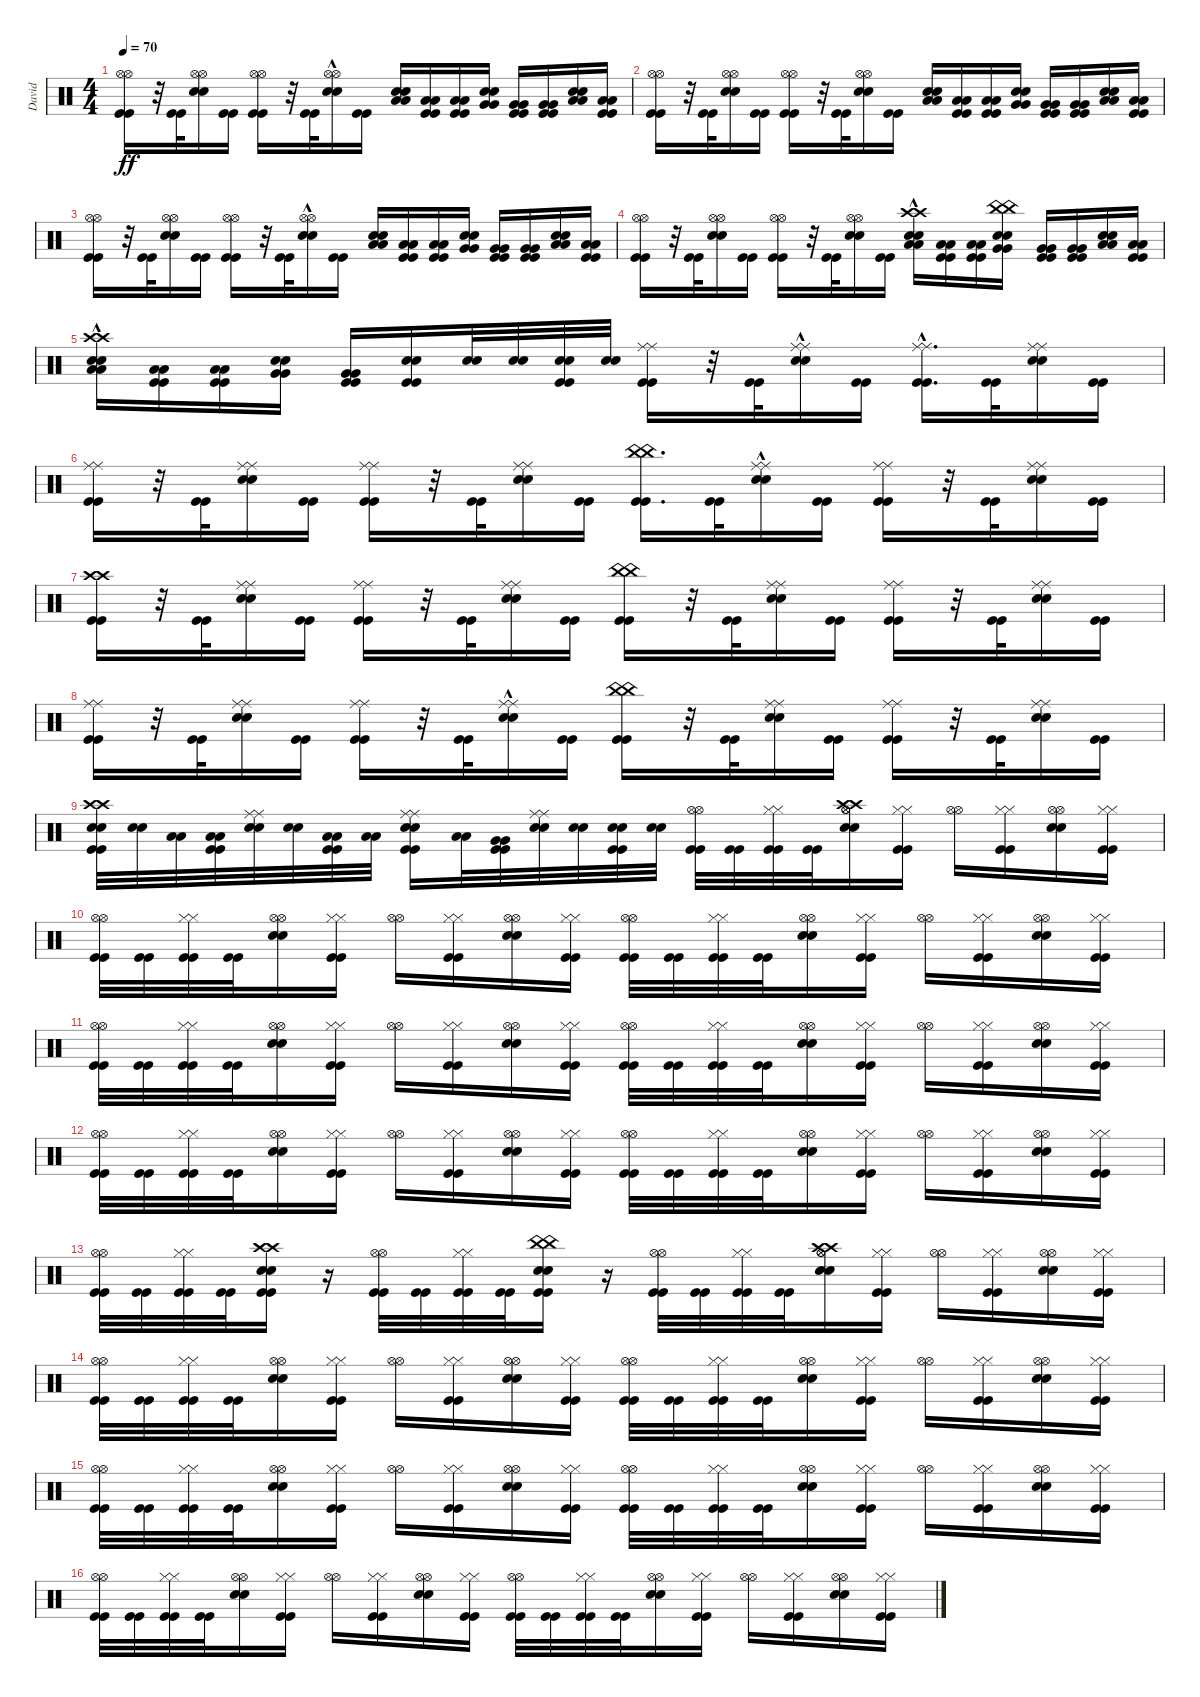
\track ("David" "David") {instrument percussion}
\staff {score}
\articulation defaults
\ts (4 4)
\tempo 70
\clef neutral
\ks c
("Hi-Hat (open)" "Hi-Hat (open)" "Kick (hit)" "Kick (hit)").16{dy ff} r.32 ("Kick (hit)" "Kick (hit)").32 ("Hi-Hat (open)" "Hi-Hat (open)" "Snare (hit) 2" "Snare (hit) 2").16 ("Kick (hit)" "Kick (hit)").16 ("Hi-Hat (open)" "Hi-Hat (open)" "Kick (hit)" "Kick (hit)").16 r.32 ("Kick (hit)" "Kick (hit)").32 ("Hi-Hat (open)"{hac} "Hi-Hat (open)"{hac} "Snare (hit) 2" "Snare (hit) 2").16 ("Kick (hit)" "Kick (hit)").16 ("Snare (hit) 2" "Snare (hit) 2" "Low Tom (hit)" "Low Tom (hit)").16 ("Kick (hit)" "Kick (hit)" "Low Tom (hit)" "Low Tom (hit)").16 ("Kick (hit)" "Kick (hit)" "Low Tom (hit)" "Low Tom (hit)").16 ("Snare (hit) 2" "Snare (hit) 2" "Very Low Tom (hit)" "Very Low Tom (hit)").16 ("Kick (hit)" "Kick (hit)" "Very Low Tom (hit)" "Very Low Tom (hit)").16 ("Kick (hit)" "Kick (hit)" "Very Low Tom (hit)" "Very Low Tom (hit)").16 ("Snare (hit) 2" "Snare (hit) 2" "Low Floor Tom (hit)" "Low Floor Tom (hit)").16 ("Kick (hit)" "Kick (hit)" "Low Floor Tom (hit)" "Low Floor Tom (hit)").16 |
("Hi-Hat (open)" "Hi-Hat (open)" "Kick (hit)" "Kick (hit)").16 r.32 ("Kick (hit)" "Kick (hit)").32 ("Hi-Hat (open)" "Hi-Hat (open)" "Snare (hit) 2" "Snare (hit) 2").16 ("Kick (hit)" "Kick (hit)").16 ("Hi-Hat (open)" "Hi-Hat (open)" "Kick (hit)" "Kick (hit)").16 r.32 ("Kick (hit)" "Kick (hit)").32 ("Hi-Hat (open)" "Hi-Hat (open)" "Snare (hit) 2" "Snare (hit) 2").16 ("Kick (hit)" "Kick (hit)").16 ("Snare (hit) 2" "Snare (hit) 2" "Low Tom (hit)" "Low Tom (hit)").16 ("Kick (hit)" "Kick (hit)" "Low Tom (hit)" "Low Tom (hit)").16 ("Kick (hit)" "Kick (hit)" "Low Tom (hit)" "Low Tom (hit)").16 ("Snare (hit) 2" "Snare (hit) 2" "Very Low Tom (hit)" "Very Low Tom (hit)").16 ("Kick (hit)" "Kick (hit)" "Very Low Tom (hit)" "Very Low Tom (hit)").16 ("Kick (hit)" "Kick (hit)" "Very Low Tom (hit)" "Very Low Tom (hit)").16 ("Snare (hit) 2" "Snare (hit) 2" "Low Floor Tom (hit)" "Low Floor Tom (hit)").16 ("Kick (hit)" "Kick (hit)" "Low Floor Tom (hit)" "Low Floor Tom (hit)").16 |
("Kick (hit)" "Kick (hit)" "Hi-Hat (open)" "Hi-Hat (open)").16 r.32 ("Kick (hit)" "Kick (hit)").32 ("Snare (hit) 2" "Snare (hit) 2" "Hi-Hat (open)" "Hi-Hat (open)").16 ("Kick (hit)" "Kick (hit)").16 ("Kick (hit)" "Kick (hit)" "Hi-Hat (open)" "Hi-Hat (open)").16 r.32 ("Kick (hit)" "Kick (hit)").32 ("Snare (hit) 2" "Snare (hit) 2" "Hi-Hat (open)"{hac} "Hi-Hat (open)"{hac}).16 ("Kick (hit)" "Kick (hit)").16 ("Snare (hit) 2" "Snare (hit) 2" "Low Tom (hit)" "Low Tom (hit)").16 ("Kick (hit)" "Kick (hit)" "Low Tom (hit)" "Low Tom (hit)").16 ("Kick (hit)" "Kick (hit)" "Low Tom (hit)" "Low Tom (hit)").16 ("Snare (hit) 2" "Snare (hit) 2" "Very Low Tom (hit)" "Very Low Tom (hit)").16 ("Kick (hit)" "Kick (hit)" "Very Low Tom (hit)" "Very Low Tom (hit)").16 ("Kick (hit)" "Kick (hit)" "Very Low Tom (hit)" "Very Low Tom (hit)").16 ("Snare (hit) 2" "Snare (hit) 2" "Low Floor Tom (hit)" "Low Floor Tom (hit)").16 ("Kick (hit)" "Kick (hit)" "Low Floor Tom (hit)" "Low Floor Tom (hit)").16 |
("Kick (hit)" "Kick (hit)" "Hi-Hat (open)" "Hi-Hat (open)").16 r.32 ("Kick (hit)" "Kick (hit)").32 ("Snare (hit) 2" "Snare (hit) 2" "Hi-Hat (open)" "Hi-Hat (open)").16 ("Kick (hit)" "Kick (hit)").16 ("Kick (hit)" "Kick (hit)" "Hi-Hat (open)" "Hi-Hat (open)").16 r.32 ("Kick (hit)" "Kick (hit)").32 ("Snare (hit) 2" "Snare (hit) 2" "Hi-Hat (open)" "Hi-Hat (open)").16 ("Kick (hit)" "Kick (hit)").16 ("Snare (hit) 2" "Snare (hit) 2" "Low Tom (hit)" "Low Tom (hit)" "Crash high (hit)"{hac} "Crash high (hit)"{hac}).16 ("Kick (hit)" "Kick (hit)" "Low Tom (hit)" "Low Tom (hit)").16 ("Kick (hit)" "Kick (hit)" "Low Tom (hit)" "Low Tom (hit)").16 ("Snare (hit) 2" "Snare (hit) 2" "Very Low Tom (hit)" "Very Low Tom (hit)" "China (hit)" "China (hit)").16 ("Kick (hit)" "Kick (hit)" "Very Low Tom (hit)" "Very Low Tom (hit)").16 ("Kick (hit)" "Kick (hit)" "Very Low Tom (hit)" "Very Low Tom (hit)").16 ("Snare (hit) 2" "Snare (hit) 2" "Low Floor Tom (hit)" "Low Floor Tom (hit)").16 ("Kick (hit)" "Kick (hit)" "Low Floor Tom (hit)" "Low Floor Tom (hit)").16 |
("Crash high (hit)"{hac} "Crash high (hit)"{hac} "Snare (hit) 2" "Snare (hit) 2" "Low Tom (hit)" "Low Tom (hit)").16 ("Kick (hit)" "Kick (hit)" "Low Tom (hit)" "Low Tom (hit)").16 ("Kick (hit)" "Kick (hit)" "Low Tom (hit)" "Low Tom (hit)").16 ("Snare (hit) 2" "Snare (hit) 2" "Very Low Tom (hit)" "Very Low Tom (hit)").16 ("Kick (hit)" "Kick (hit)" "Very Low Tom (hit)" "Very Low Tom (hit)").16 ("Snare (hit) 2" "Snare (hit) 2" "Kick (hit)" "Kick (hit)").16 ("Snare (hit) 2" "Snare (hit) 2").32 ("Snare (hit) 2" "Snare (hit) 2").32 ("Snare (hit) 2" "Snare (hit) 2" "Kick (hit)" "Kick (hit)").32 ("Snare (hit) 2" "Snare (hit) 2").32 ("Kick (hit)" "Kick (hit)" "Ride (middle)" "Ride (middle)").16 r.32 ("Kick (hit)" "Kick (hit)").32 ("Ride (middle)" "Ride (middle)" "Snare (hit) 2"{hac} "Snare (hit) 2"{hac}).16 ("Kick (hit)" "Kick (hit)").16 ("Kick (hit)" "Kick (hit)" "Ride (middle)"{hac} "Ride (middle)"{hac}).16{d} ("Kick (hit)" "Kick (hit)").32 ("Ride (middle)" "Ride (middle)" "Snare (hit) 2" "Snare (hit) 2").16 ("Kick (hit)" "Kick (hit)").16 |
("Ride (middle)" "Ride (middle)" "Kick (hit)" "Kick (hit)").16 r.32 ("Kick (hit)" "Kick (hit)").32 ("Ride (middle)" "Ride (middle)" "Snare (hit) 2" "Snare (hit) 2").16 ("Kick (hit)" "Kick (hit)").16 ("Ride (middle)" "Ride (middle)" "Kick (hit)" "Kick (hit)").16 r.32 ("Kick (hit)" "Kick (hit)").32 ("Ride (middle)" "Ride (middle)" "Snare (hit) 2" "Snare (hit) 2").16 ("Kick (hit)" "Kick (hit)").16 ("China (hit)" "China (hit)" "Kick (hit)" "Kick (hit)").16{d} ("Kick (hit)" "Kick (hit)").32 ("Ride (middle)" "Ride (middle)" "Snare (hit) 2"{hac} "Snare (hit) 2"{hac}).16 ("Kick (hit)" "Kick (hit)").16 ("Ride (middle)" "Ride (middle)" "Kick (hit)" "Kick (hit)").16 r.32 ("Kick (hit)" "Kick (hit)").32 ("Ride (middle)" "Ride (middle)" "Snare (hit) 2" "Snare (hit) 2").16 ("Kick (hit)" "Kick (hit)").16 |
("Crash high (hit)" "Crash high (hit)" "Kick (hit)" "Kick (hit)").16 r.32 ("Kick (hit)" "Kick (hit)").32 ("Ride (middle)" "Ride (middle)" "Snare (hit) 2" "Snare (hit) 2").16 ("Kick (hit)" "Kick (hit)").16 ("Ride (middle)" "Ride (middle)" "Kick (hit)" "Kick (hit)").16 r.32 ("Kick (hit)" "Kick (hit)").32 ("Ride (middle)" "Ride (middle)" "Snare (hit) 2" "Snare (hit) 2").16 ("Kick (hit)" "Kick (hit)").16 ("China (hit)" "China (hit)" "Kick (hit)" "Kick (hit)").16 r.32 ("Kick (hit)" "Kick (hit)").32 ("Ride (middle)" "Ride (middle)" "Snare (hit) 2" "Snare (hit) 2").16 ("Kick (hit)" "Kick (hit)").16 ("Ride (middle)" "Ride (middle)" "Kick (hit)" "Kick (hit)").16 r.32 ("Kick (hit)" "Kick (hit)").32 ("Snare (hit) 2" "Snare (hit) 2" "Ride (middle)" "Ride (middle)").16 ("Kick (hit)" "Kick (hit)").16 |
("Kick (hit)" "Kick (hit)" "Ride (middle)" "Ride (middle)").16 r.32 ("Kick (hit)" "Kick (hit)").32 ("Snare (hit) 2" "Snare (hit) 2" "Ride (middle)" "Ride (middle)").16 ("Kick (hit)" "Kick (hit)").16 ("Ride (middle)" "Ride (middle)" "Kick (hit)" "Kick (hit)").16 r.32 ("Kick (hit)" "Kick (hit)").32 ("Ride (middle)" "Ride (middle)" "Snare (hit) 2"{hac} "Snare (hit) 2"{hac}).16 ("Kick (hit)" "Kick (hit)").16 ("China (hit)" "China (hit)" "Kick (hit)" "Kick (hit)").16 r.32 ("Kick (hit)" "Kick (hit)").32 ("Ride (middle)" "Ride (middle)" "Snare (hit) 2" "Snare (hit) 2").16 ("Kick (hit)" "Kick (hit)").16 ("Kick (hit)" "Kick (hit)" "Ride (middle)" "Ride (middle)").16 r.32 ("Kick (hit)" "Kick (hit)").32 ("Snare (hit) 2" "Snare (hit) 2" "Ride (middle)" "Ride (middle)").16 ("Kick (hit)" "Kick (hit)").16 |
("Snare (hit) 2" "Snare (hit) 2" "Kick (hit)" "Kick (hit)" "Crash high (hit)" "Crash high (hit)").32 ("Snare (hit) 2" "Snare (hit) 2").32 ("Low Floor Tom (hit)" "Low Floor Tom (hit)").32 ("Kick (hit)" "Kick (hit)" "Low Floor Tom (hit)" "Low Floor Tom (hit)").32 ("Ride (middle)" "Ride (middle)" "Snare (hit) 2" "Snare (hit) 2").32 ("Snare (hit) 2" "Snare (hit) 2").32 ("Kick (hit)" "Kick (hit)" "Low Floor Tom (hit)" "Low Floor Tom (hit)").32 ("Low Floor Tom (hit)" "Low Floor Tom (hit)").32 ("Kick (hit)" "Kick (hit)" "Ride (middle)" "Ride (middle)" "Snare (hit) 2" "Snare (hit) 2").16 ("Low Floor Tom (hit)" "Low Floor Tom (hit)").32 ("Kick (hit)" "Kick (hit)" "Very Low Tom (hit)" "Very Low Tom (hit)").32 ("Ride (middle)" "Ride (middle)" "Snare (hit) 2" "Snare (hit) 2").32 ("Snare (hit) 2" "Snare (hit) 2").32 ("Kick (hit)" "Kick (hit)" "Snare (hit) 2" "Snare (hit) 2").32 ("Snare (hit) 2" "Snare (hit) 2").32 ("Kick (hit)" "Kick (hit)" "Hi-Hat (open)" "Hi-Hat (open)").32 ("Kick (hit)" "Kick (hit)").32 ("Kick (hit)" "Kick (hit)" "Hi-Hat (closed)" "Hi-Hat (closed)").32 ("Kick (hit)" "Kick (hit)").32 ("Crash high (hit)" "Crash high (hit)" "Snare (hit) 2" "Snare (hit) 2" "Hi-Hat (open)" "Hi-Hat (open)").16 ("Hi-Hat (closed)" "Hi-Hat (closed)" "Kick (hit)" "Kick (hit)").16 ("Hi-Hat (open)" "Hi-Hat (open)").16 ("Hi-Hat (closed)" "Hi-Hat (closed)" "Kick (hit)" "Kick (hit)").16 ("Hi-Hat (open)" "Hi-Hat (open)" "Snare (hit) 2" "Snare (hit) 2").16 ("Kick (hit)" "Kick (hit)" "Hi-Hat (closed)" "Hi-Hat (closed)").16 |
("Hi-Hat (open)" "Hi-Hat (open)" "Kick (hit)" "Kick (hit)").32 ("Kick (hit)" "Kick (hit)").32 ("Kick (hit)" "Kick (hit)" "Hi-Hat (closed)" "Hi-Hat (closed)").32 ("Kick (hit)" "Kick (hit)").32 ("Snare (hit) 2" "Snare (hit) 2" "Hi-Hat (open)" "Hi-Hat (open)").16 ("Hi-Hat (closed)" "Hi-Hat (closed)" "Kick (hit)" "Kick (hit)").16 ("Hi-Hat (open)" "Hi-Hat (open)").16 ("Hi-Hat (closed)" "Hi-Hat (closed)" "Kick (hit)" "Kick (hit)").16 ("Snare (hit) 2" "Snare (hit) 2" "Hi-Hat (open)" "Hi-Hat (open)").16 ("Kick (hit)" "Kick (hit)" "Hi-Hat (closed)" "Hi-Hat (closed)").16 ("Kick (hit)" "Kick (hit)" "Hi-Hat (open)" "Hi-Hat (open)").32 ("Kick (hit)" "Kick (hit)").32 ("Kick (hit)" "Kick (hit)" "Hi-Hat (closed)" "Hi-Hat (closed)").32 ("Kick (hit)" "Kick (hit)").32 ("Hi-Hat (open)" "Hi-Hat (open)" "Snare (hit) 2" "Snare (hit) 2").16 ("Kick (hit)" "Kick (hit)" "Hi-Hat (closed)" "Hi-Hat (closed)").16 ("Hi-Hat (open)" "Hi-Hat (open)").16 ("Kick (hit)" "Kick (hit)" "Hi-Hat (closed)" "Hi-Hat (closed)").16 ("Snare (hit) 2" "Snare (hit) 2" "Hi-Hat (open)" "Hi-Hat (open)").16 ("Kick (hit)" "Kick (hit)" "Hi-Hat (closed)" "Hi-Hat (closed)").16 |
("Kick (hit)" "Kick (hit)" "Hi-Hat (open)" "Hi-Hat (open)").32 ("Kick (hit)" "Kick (hit)").32 ("Kick (hit)" "Kick (hit)" "Hi-Hat (closed)" "Hi-Hat (closed)").32 ("Kick (hit)" "Kick (hit)").32 ("Snare (hit) 2" "Snare (hit) 2" "Hi-Hat (open)" "Hi-Hat (open)").16 ("Kick (hit)" "Kick (hit)" "Hi-Hat (closed)" "Hi-Hat (closed)").16 ("Hi-Hat (open)" "Hi-Hat (open)").16 ("Hi-Hat (closed)" "Hi-Hat (closed)" "Kick (hit)" "Kick (hit)").16 ("Snare (hit) 2" "Snare (hit) 2" "Hi-Hat (open)" "Hi-Hat (open)").16 ("Kick (hit)" "Kick (hit)" "Hi-Hat (closed)" "Hi-Hat (closed)").16 ("Kick (hit)" "Kick (hit)" "Hi-Hat (open)" "Hi-Hat (open)").32 ("Kick (hit)" "Kick (hit)").32 ("Kick (hit)" "Kick (hit)" "Hi-Hat (closed)" "Hi-Hat (closed)").32 ("Kick (hit)" "Kick (hit)").32 ("Hi-Hat (open)" "Hi-Hat (open)" "Snare (hit) 2" "Snare (hit) 2").16 ("Kick (hit)" "Kick (hit)" "Hi-Hat (closed)" "Hi-Hat (closed)").16 ("Hi-Hat (open)" "Hi-Hat (open)").16 ("Kick (hit)" "Kick (hit)" "Hi-Hat (closed)" "Hi-Hat (closed)").16 ("Hi-Hat (open)" "Hi-Hat (open)" "Snare (hit) 2" "Snare (hit) 2").16 ("Hi-Hat (closed)" "Hi-Hat (closed)" "Kick (hit)" "Kick (hit)").16 |
("Hi-Hat (open)" "Hi-Hat (open)" "Kick (hit)" "Kick (hit)").32 ("Kick (hit)" "Kick (hit)").32 ("Kick (hit)" "Kick (hit)" "Hi-Hat (closed)" "Hi-Hat (closed)").32 ("Kick (hit)" "Kick (hit)").32 ("Snare (hit) 2" "Snare (hit) 2" "Hi-Hat (open)" "Hi-Hat (open)").16 ("Hi-Hat (closed)" "Hi-Hat (closed)" "Kick (hit)" "Kick (hit)").16 ("Hi-Hat (open)" "Hi-Hat (open)").16 ("Hi-Hat (closed)" "Hi-Hat (closed)" "Kick (hit)" "Kick (hit)").16 ("Snare (hit) 2" "Snare (hit) 2" "Hi-Hat (open)" "Hi-Hat (open)").16 ("Hi-Hat (closed)" "Hi-Hat (closed)" "Kick (hit)" "Kick (hit)").16 ("Kick (hit)" "Kick (hit)" "Hi-Hat (open)" "Hi-Hat (open)").32 ("Kick (hit)" "Kick (hit)").32 ("Kick (hit)" "Kick (hit)" "Hi-Hat (closed)" "Hi-Hat (closed)").32 ("Kick (hit)" "Kick (hit)").32 ("Hi-Hat (open)" "Hi-Hat (open)" "Snare (hit) 2" "Snare (hit) 2").16 ("Kick (hit)" "Kick (hit)" "Hi-Hat (closed)" "Hi-Hat (closed)").16 ("Hi-Hat (open)" "Hi-Hat (open)").16 ("Kick (hit)" "Kick (hit)" "Hi-Hat (closed)" "Hi-Hat (closed)").16 ("Hi-Hat (open)" "Hi-Hat (open)" "Snare (hit) 2" "Snare (hit) 2").16 ("Hi-Hat (closed)" "Hi-Hat (closed)" "Kick (hit)" "Kick (hit)").16 |
("Hi-Hat (open)" "Hi-Hat (open)" "Kick (hit)" "Kick (hit)").32 ("Kick (hit)" "Kick (hit)").32 ("Kick (hit)" "Kick (hit)" "Hi-Hat (closed)" "Hi-Hat (closed)").32 ("Kick (hit)" "Kick (hit)").32 ("Kick (hit)" "Kick (hit)" "Crash high (hit)" "Crash high (hit)" "Snare (hit) 2" "Snare (hit) 2").16 r.16 ("Hi-Hat (open)" "Hi-Hat (open)" "Kick (hit)" "Kick (hit)").32 ("Kick (hit)" "Kick (hit)").32 ("Hi-Hat (closed)" "Hi-Hat (closed)" "Kick (hit)" "Kick (hit)").32 ("Kick (hit)" "Kick (hit)").32 ("Kick (hit)" "Kick (hit)" "China (hit)" "China (hit)" "Snare (hit) 2" "Snare (hit) 2").16 r.16 ("Hi-Hat (open)" "Hi-Hat (open)" "Kick (hit)" "Kick (hit)").32 ("Kick (hit)" "Kick (hit)").32 ("Hi-Hat (closed)" "Hi-Hat (closed)" "Kick (hit)" "Kick (hit)").32 ("Kick (hit)" "Kick (hit)").32 ("Hi-Hat (open)" "Hi-Hat (open)" "Snare (hit) 2" "Snare (hit) 2" "Crash high (hit)" "Crash high (hit)").16 ("Kick (hit)" "Kick (hit)" "Hi-Hat (closed)" "Hi-Hat (closed)").16 ("Hi-Hat (open)" "Hi-Hat (open)").16 ("Kick (hit)" "Kick (hit)" "Hi-Hat (closed)" "Hi-Hat (closed)").16 ("Snare (hit) 2" "Snare (hit) 2" "Hi-Hat (open)" "Hi-Hat (open)").16 ("Hi-Hat (closed)" "Hi-Hat (closed)" "Kick (hit)" "Kick (hit)").16 |
("Kick (hit)" "Kick (hit)" "Hi-Hat (open)" "Hi-Hat (open)").32 ("Kick (hit)" "Kick (hit)").32 ("Hi-Hat (closed)" "Hi-Hat (closed)" "Kick (hit)" "Kick (hit)").32 ("Kick (hit)" "Kick (hit)").32 ("Hi-Hat (open)" "Hi-Hat (open)" "Snare (hit) 2" "Snare (hit) 2").16 ("Kick (hit)" "Kick (hit)" "Hi-Hat (closed)" "Hi-Hat (closed)").16 ("Hi-Hat (open)" "Hi-Hat (open)").16 ("Kick (hit)" "Kick (hit)" "Hi-Hat (closed)" "Hi-Hat (closed)").16 ("Hi-Hat (open)" "Hi-Hat (open)" "Snare (hit) 2" "Snare (hit) 2").16 ("Hi-Hat (closed)" "Hi-Hat (closed)" "Kick (hit)" "Kick (hit)").16 ("Hi-Hat (open)" "Hi-Hat (open)" "Kick (hit)" "Kick (hit)").32 ("Kick (hit)" "Kick (hit)").32 ("Hi-Hat (closed)" "Hi-Hat (closed)" "Kick (hit)" "Kick (hit)").32 ("Kick (hit)" "Kick (hit)").32 ("Snare (hit) 2" "Snare (hit) 2" "Hi-Hat (open)" "Hi-Hat (open)").16 ("Hi-Hat (closed)" "Hi-Hat (closed)" "Kick (hit)" "Kick (hit)").16 ("Hi-Hat (open)" "Hi-Hat (open)").16 ("Hi-Hat (closed)" "Hi-Hat (closed)" "Kick (hit)" "Kick (hit)").16 ("Hi-Hat (open)" "Hi-Hat (open)" "Snare (hit) 2" "Snare (hit) 2").16 ("Hi-Hat (closed)" "Hi-Hat (closed)" "Kick (hit)" "Kick (hit)").16 |
("Hi-Hat (open)" "Hi-Hat (open)" "Kick (hit)" "Kick (hit)").32 ("Kick (hit)" "Kick (hit)").32 ("Hi-Hat (closed)" "Hi-Hat (closed)" "Kick (hit)" "Kick (hit)").32 ("Kick (hit)" "Kick (hit)").32 ("Hi-Hat (open)" "Hi-Hat (open)" "Snare (hit) 2" "Snare (hit) 2").16 ("Hi-Hat (closed)" "Hi-Hat (closed)" "Kick (hit)" "Kick (hit)").16 ("Hi-Hat (open)" "Hi-Hat (open)").16 ("Kick (hit)" "Kick (hit)" "Hi-Hat (closed)" "Hi-Hat (closed)").16 ("Hi-Hat (open)" "Hi-Hat (open)" "Snare (hit) 2" "Snare (hit) 2").16 ("Hi-Hat (closed)" "Hi-Hat (closed)" "Kick (hit)" "Kick (hit)").16 ("Hi-Hat (open)" "Hi-Hat (open)" "Kick (hit)" "Kick (hit)").32 ("Kick (hit)" "Kick (hit)").32 ("Hi-Hat (closed)" "Hi-Hat (closed)" "Kick (hit)" "Kick (hit)").32 ("Kick (hit)" "Kick (hit)").32 ("Snare (hit) 2" "Snare (hit) 2" "Hi-Hat (open)" "Hi-Hat (open)").16 ("Hi-Hat (closed)" "Hi-Hat (closed)" "Kick (hit)" "Kick (hit)").16 ("Hi-Hat (open)" "Hi-Hat (open)").16 ("Hi-Hat (closed)" "Hi-Hat (closed)" "Kick (hit)" "Kick (hit)").16 ("Snare (hit) 2" "Snare (hit) 2" "Hi-Hat (open)" "Hi-Hat (open)").16 ("Kick (hit)" "Kick (hit)" "Hi-Hat (closed)" "Hi-Hat (closed)").16 |
("Kick (hit)" "Kick (hit)" "Hi-Hat (open)" "Hi-Hat (open)").32 ("Kick (hit)" "Kick (hit)").32 ("Hi-Hat (closed)" "Hi-Hat (closed)" "Kick (hit)" "Kick (hit)").32 ("Kick (hit)" "Kick (hit)").32 ("Hi-Hat (open)" "Hi-Hat (open)" "Snare (hit) 2" "Snare (hit) 2").16 ("Kick (hit)" "Kick (hit)" "Hi-Hat (closed)" "Hi-Hat (closed)").16 ("Hi-Hat (open)" "Hi-Hat (open)").16 ("Kick (hit)" "Kick (hit)" "Hi-Hat (closed)" "Hi-Hat (closed)").16 ("Hi-Hat (open)" "Hi-Hat (open)" "Snare (hit) 2" "Snare (hit) 2").16 ("Kick (hit)" "Kick (hit)" "Hi-Hat (closed)" "Hi-Hat (closed)").16 ("Hi-Hat (open)" "Hi-Hat (open)" "Kick (hit)" "Kick (hit)").32 ("Kick (hit)" "Kick (hit)").32 ("Hi-Hat (closed)" "Hi-Hat (closed)" "Kick (hit)" "Kick (hit)").32 ("Kick (hit)" "Kick (hit)").32 ("Snare (hit) 2" "Snare (hit) 2" "Hi-Hat (open)" "Hi-Hat (open)").16 ("Hi-Hat (closed)" "Hi-Hat (closed)" "Kick (hit)" "Kick (hit)").16 ("Hi-Hat (open)" "Hi-Hat (open)").16 ("Hi-Hat (closed)" "Hi-Hat (closed)" "Kick (hit)" "Kick (hit)").16 ("Snare (hit) 2" "Snare (hit) 2" "Hi-Hat (open)" "Hi-Hat (open)").16 ("Kick (hit)" "Kick (hit)" "Hi-Hat (closed)" "Hi-Hat (closed)").16
